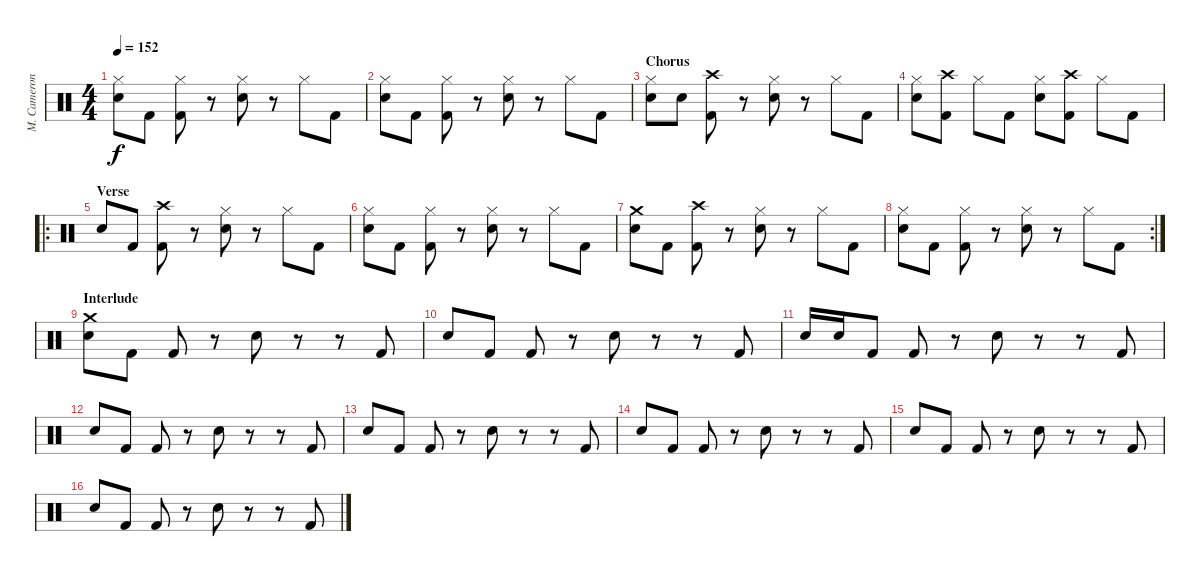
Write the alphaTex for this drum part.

\track ("M. Cameron" "M. Cameron") {instrument percussion}
\staff {score}
\articulation defaults
\ts (4 4)
\tempo 152
\clef neutral
\ks c
("Hi-Hat (closed)" "Snare (hit) 2").8{dy f} "Kick (hit) 2".8 ("Hi-Hat (closed)" "Kick (hit) 2").8 r.8 ("Hi-Hat (closed)" "Snare (hit) 2").8 r.8 "Hi-Hat (closed)".8 "Kick (hit) 2".8 |
("Hi-Hat (closed)" "Snare (hit) 2").8 "Kick (hit) 2".8 ("Hi-Hat (closed)" "Kick (hit) 2").8 r.8 ("Hi-Hat (closed)" "Snare (hit) 2").8 r.8 "Hi-Hat (closed)".8 "Kick (hit) 2".8 |
\section ("" "Chorus")
("Hi-Hat (closed)" "Snare (hit) 2").8 "Snare (hit) 2".8 ("Crash high (hit)" "Kick (hit) 2").8 r.8 ("Hi-Hat (closed)" "Snare (hit) 2").8 r.8 "Hi-Hat (closed)".8 "Kick (hit) 2".8 |
("Hi-Hat (closed)" "Snare (hit) 2").8 ("Crash high (hit)" "Kick (hit) 2").8 "Hi-Hat (closed)".8 "Kick (hit) 2".8 ("Hi-Hat (closed)" "Snare (hit) 2").8 ("Crash high (hit)" "Kick (hit) 2").8 "Hi-Hat (closed)".8 "Kick (hit) 2".8 |
\ro
\section ("" "Verse")
"Snare (hit) 2".8 "Kick (hit) 2".8 ("Crash high (hit)" "Kick (hit) 2").8 r.8 ("Hi-Hat (closed)" "Snare (hit) 2").8 r.8 "Hi-Hat (closed)".8 "Kick (hit) 2".8 |
("Hi-Hat (closed)" "Snare (hit) 2").8 "Kick (hit) 2".8 ("Hi-Hat (closed)" "Kick (hit) 2").8 r.8 ("Hi-Hat (closed)" "Snare (hit) 2").8 r.8 "Hi-Hat (closed)".8 "Kick (hit) 2".8 |
("Crash medium (hit)" "Snare (hit) 2").8 "Kick (hit) 2".8 ("Crash high (hit)" "Kick (hit) 2").8 r.8 ("Hi-Hat (closed)" "Snare (hit) 2").8 r.8 "Hi-Hat (closed)".8 "Kick (hit) 2".8 |
\rc 2
("Hi-Hat (closed)" "Snare (hit) 2").8 "Kick (hit) 2".8 ("Hi-Hat (closed)" "Kick (hit) 2").8 r.8 ("Hi-Hat (closed)" "Snare (hit) 2").8 r.8 "Hi-Hat (closed)".8 "Kick (hit) 2".8 |
\section ("" "Interlude")
("Crash medium (hit)" "Snare (hit) 2").8 "Kick (hit) 2".8 "Kick (hit) 2".8 r.8 "Snare (hit) 2".8 r.8 r.8 "Kick (hit) 2".8 |
"Snare (hit) 2".8 "Kick (hit) 2".8 "Kick (hit) 2".8 r.8 "Snare (hit) 2".8 r.8 r.8 "Kick (hit) 2".8 |
"Snare (hit) 2".16 "Snare (hit) 2".16 "Kick (hit) 2".8 "Kick (hit) 2".8 r.8 "Snare (hit) 2".8 r.8 r.8 "Kick (hit) 2".8 |
"Snare (hit) 2".8 "Kick (hit) 2".8 "Kick (hit) 2".8 r.8 "Snare (hit) 2".8 r.8 r.8 "Kick (hit) 2".8 |
"Snare (hit) 2".8 "Kick (hit) 2".8 "Kick (hit) 2".8 r.8 "Snare (hit) 2".8 r.8 r.8 "Kick (hit) 2".8 |
"Snare (hit) 2".8 "Kick (hit) 2".8 "Kick (hit) 2".8 r.8 "Snare (hit) 2".8 r.8 r.8 "Kick (hit) 2".8 |
"Snare (hit) 2".8 "Kick (hit) 2".8 "Kick (hit) 2".8 r.8 "Snare (hit) 2".8 r.8 r.8 "Kick (hit) 2".8 |
"Snare (hit) 2".8 "Kick (hit) 2".8 "Kick (hit) 2".8 r.8 "Snare (hit) 2".8 r.8 r.8 "Kick (hit) 2".8
